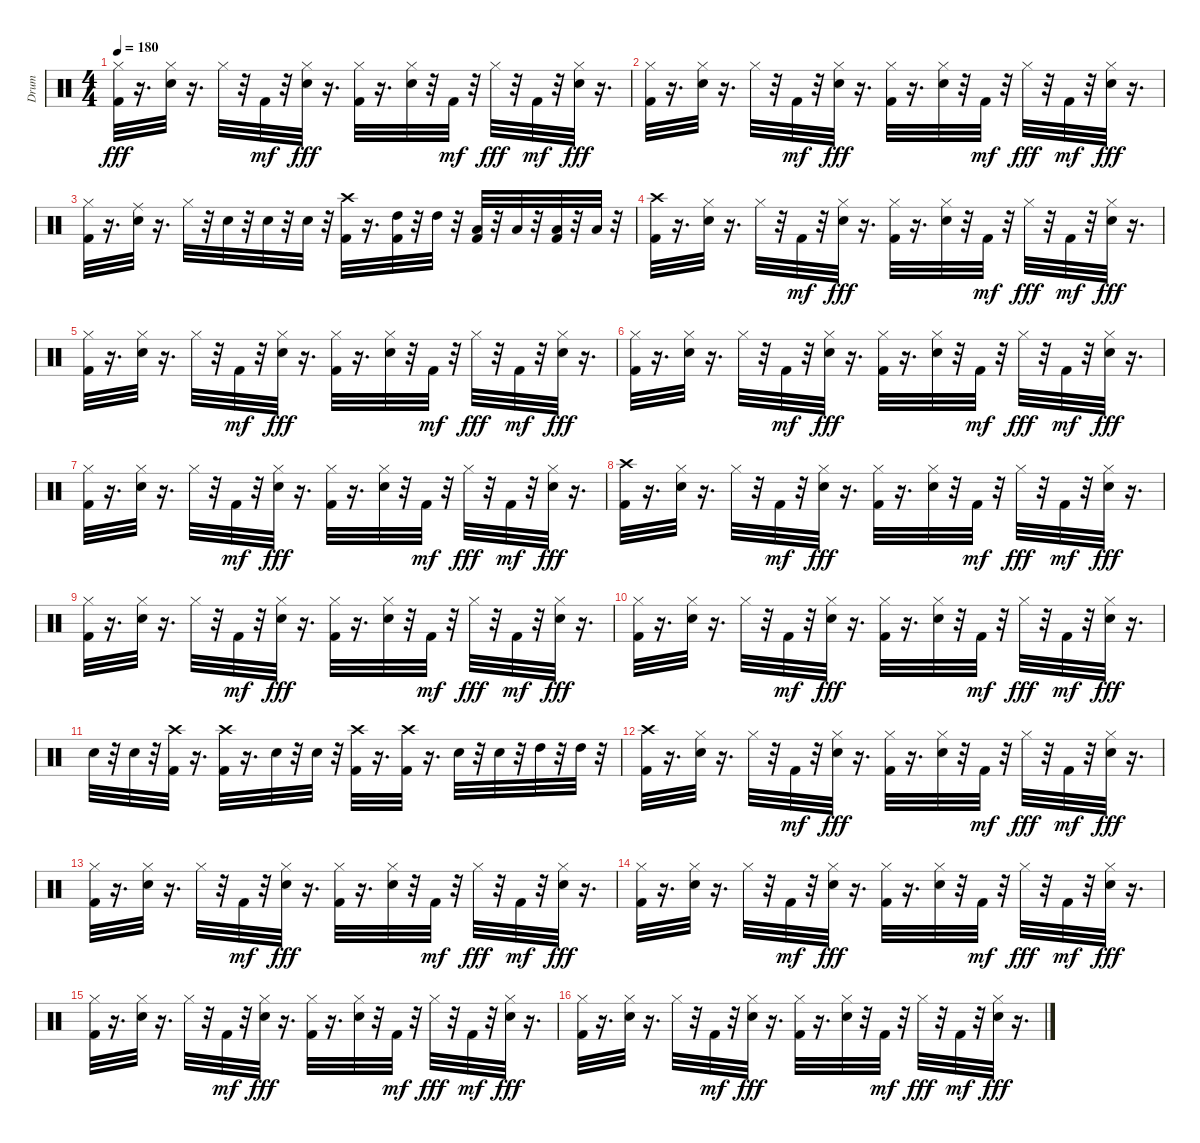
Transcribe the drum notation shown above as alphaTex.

\track ("Drum" "Drum") {instrument percussion}
\staff {score}
\articulation defaults
\ts (4 4)
\tempo 180
\clef neutral
\ks c
("Kick (hit) 2" "Hi-Hat (closed)").32{dy fff} r.16{d} ("Hi-Hat (closed)" "Snare (hit) 2").32 r.16{d} "Hi-Hat (closed)".32 r.32 "Kick (hit) 2".32{dy mf} r.32 ("Hi-Hat (closed)" "Snare (hit) 2").32{dy fff} r.16{d} ("Kick (hit) 2" "Hi-Hat (closed)").32 r.16{d} ("Hi-Hat (closed)" "Snare (hit) 2").32 r.32 "Kick (hit) 2".32{dy mf} r.32 "Hi-Hat (closed)".32{dy fff} r.32 "Kick (hit) 2".32{dy mf} r.32 ("Hi-Hat (closed)" "Snare (hit) 2").32{dy fff} r.16{d} |
("Kick (hit) 2" "Hi-Hat (closed)").32 r.16{d} ("Hi-Hat (closed)" "Snare (hit) 2").32 r.16{d} "Hi-Hat (closed)".32 r.32 "Kick (hit) 2".32{dy mf} r.32 ("Hi-Hat (closed)" "Snare (hit) 2").32{dy fff} r.16{d} ("Kick (hit) 2" "Hi-Hat (closed)").32 r.16{d} ("Hi-Hat (closed)" "Snare (hit) 2").32 r.32 "Kick (hit) 2".32{dy mf} r.32 "Hi-Hat (closed)".32{dy fff} r.32 "Kick (hit) 2".32{dy mf} r.32 ("Hi-Hat (closed)" "Snare (hit) 2").32{dy fff} r.16{d} |
("Kick (hit) 2" "Hi-Hat (closed)").32 r.16{d} ("Snare (hit) 2" "Ride (middle)").32 r.16{d} "Hi-Hat (closed)".32 r.32 "Snare (hit) 2".32 r.32 "Snare (hit) 2".32 r.32 "Snare (hit) 2".32 r.32 ("Kick (hit) 2" "Crash high (hit)").32 r.16{d} ("Kick (hit) 2" "High Tom (hit)").32 r.32 "High Tom (hit)".32 r.32 ("Kick (hit) 2" "Low Tom (hit)").32 r.32 "Low Tom (hit)".32 r.32 ("Kick (hit) 2" "Low Floor Tom (hit)").32 r.32 "Low Floor Tom (hit)".32 r.32 |
("Kick (hit) 2" "Crash high (hit)").32 r.16{d} ("Hi-Hat (closed)" "Snare (hit) 2").32 r.16{d} "Hi-Hat (closed)".32 r.32 "Kick (hit) 2".32{dy mf} r.32 ("Hi-Hat (closed)" "Snare (hit) 2").32{dy fff} r.16{d} ("Kick (hit) 2" "Hi-Hat (closed)").32 r.16{d} ("Hi-Hat (closed)" "Snare (hit) 2").32 r.32 "Kick (hit) 2".32{dy mf} r.32 "Hi-Hat (closed)".32{dy fff} r.32 "Kick (hit) 2".32{dy mf} r.32 ("Hi-Hat (closed)" "Snare (hit) 2").32{dy fff} r.16{d} |
("Kick (hit) 2" "Hi-Hat (closed)").32 r.16{d} ("Hi-Hat (closed)" "Snare (hit) 2").32 r.16{d} "Hi-Hat (closed)".32 r.32 "Kick (hit) 2".32{dy mf} r.32 ("Hi-Hat (closed)" "Snare (hit) 2").32{dy fff} r.16{d} ("Kick (hit) 2" "Hi-Hat (closed)").32 r.16{d} ("Hi-Hat (closed)" "Snare (hit) 2").32 r.32 "Kick (hit) 2".32{dy mf} r.32 "Hi-Hat (closed)".32{dy fff} r.32 "Kick (hit) 2".32{dy mf} r.32 ("Hi-Hat (closed)" "Snare (hit) 2").32{dy fff} r.16{d} |
("Kick (hit) 2" "Hi-Hat (closed)").32 r.16{d} ("Hi-Hat (closed)" "Snare (hit) 2").32 r.16{d} "Hi-Hat (closed)".32 r.32 "Kick (hit) 2".32{dy mf} r.32 ("Hi-Hat (closed)" "Snare (hit) 2").32{dy fff} r.16{d} ("Kick (hit) 2" "Hi-Hat (closed)").32 r.16{d} ("Hi-Hat (closed)" "Snare (hit) 2").32 r.32 "Kick (hit) 2".32{dy mf} r.32 "Hi-Hat (closed)".32{dy fff} r.32 "Kick (hit) 2".32{dy mf} r.32 ("Hi-Hat (closed)" "Snare (hit) 2").32{dy fff} r.16{d} |
("Kick (hit) 2" "Hi-Hat (closed)").32 r.16{d} ("Hi-Hat (closed)" "Snare (hit) 2").32 r.16{d} "Hi-Hat (closed)".32 r.32 "Kick (hit) 2".32{dy mf} r.32 ("Hi-Hat (closed)" "Snare (hit) 2").32{dy fff} r.16{d} ("Kick (hit) 2" "Hi-Hat (closed)").32 r.16{d} ("Hi-Hat (closed)" "Snare (hit) 2").32 r.32 "Kick (hit) 2".32{dy mf} r.32 "Hi-Hat (closed)".32{dy fff} r.32 "Kick (hit) 2".32{dy mf} r.32 ("Hi-Hat (closed)" "Snare (hit) 2").32{dy fff} r.16{d} |
("Kick (hit) 2" "Crash high (hit)").32 r.16{d} ("Hi-Hat (closed)" "Snare (hit) 2").32 r.16{d} "Hi-Hat (closed)".32 r.32 "Kick (hit) 2".32{dy mf} r.32 ("Hi-Hat (closed)" "Snare (hit) 2").32{dy fff} r.16{d} ("Kick (hit) 2" "Hi-Hat (closed)").32 r.16{d} ("Hi-Hat (closed)" "Snare (hit) 2").32 r.32 "Kick (hit) 2".32{dy mf} r.32 "Hi-Hat (closed)".32{dy fff} r.32 "Kick (hit) 2".32{dy mf} r.32 ("Hi-Hat (closed)" "Snare (hit) 2").32{dy fff} r.16{d} |
("Kick (hit) 2" "Hi-Hat (closed)").32 r.16{d} ("Hi-Hat (closed)" "Snare (hit) 2").32 r.16{d} "Hi-Hat (closed)".32 r.32 "Kick (hit) 2".32{dy mf} r.32 ("Hi-Hat (closed)" "Snare (hit) 2").32{dy fff} r.16{d} ("Kick (hit) 2" "Hi-Hat (closed)").32 r.16{d} ("Hi-Hat (closed)" "Snare (hit) 2").32 r.32 "Kick (hit) 2".32{dy mf} r.32 "Hi-Hat (closed)".32{dy fff} r.32 "Kick (hit) 2".32{dy mf} r.32 ("Hi-Hat (closed)" "Snare (hit) 2").32{dy fff} r.16{d} |
("Kick (hit) 2" "Hi-Hat (closed)").32 r.16{d} ("Hi-Hat (closed)" "Snare (hit) 2").32 r.16{d} "Hi-Hat (closed)".32 r.32 "Kick (hit) 2".32{dy mf} r.32 ("Hi-Hat (closed)" "Snare (hit) 2").32{dy fff} r.16{d} ("Kick (hit) 2" "Hi-Hat (closed)").32 r.16{d} ("Hi-Hat (closed)" "Snare (hit) 2").32 r.32 "Kick (hit) 2".32{dy mf} r.32 "Hi-Hat (closed)".32{dy fff} r.32 "Kick (hit) 2".32{dy mf} r.32 ("Hi-Hat (closed)" "Snare (hit) 2").32{dy fff} r.16{d} |
"Snare (hit) 2".32 r.32 "Snare (hit) 2".32 r.32 ("Kick (hit) 2" "Crash high (hit)").32 r.16{d} ("Crash high (hit)" "Kick (hit) 2").32 r.16{d} "Snare (hit) 2".32 r.32 "Snare (hit) 2".32 r.32 ("Kick (hit) 2" "Crash high (hit)").32 r.16{d} ("Kick (hit) 2" "Crash high (hit)").32 r.16{d} "Snare (hit) 2".32 r.32 "Snare (hit) 2".32 r.32 "High Tom (hit)".32 r.32 "High Tom (hit)".32 r.32 |
("Kick (hit) 2" "Crash high (hit)").32 r.16{d} ("Hi-Hat (closed)" "Snare (hit) 2").32 r.16{d} "Hi-Hat (closed)".32 r.32 "Kick (hit) 2".32{dy mf} r.32 ("Hi-Hat (closed)" "Snare (hit) 2").32{dy fff} r.16{d} ("Kick (hit) 2" "Hi-Hat (closed)").32 r.16{d} ("Hi-Hat (closed)" "Snare (hit) 2").32 r.32 "Kick (hit) 2".32{dy mf} r.32 "Hi-Hat (closed)".32{dy fff} r.32 "Kick (hit) 2".32{dy mf} r.32 ("Hi-Hat (closed)" "Snare (hit) 2").32{dy fff} r.16{d} |
("Kick (hit) 2" "Hi-Hat (closed)").32 r.16{d} ("Hi-Hat (closed)" "Snare (hit) 2").32 r.16{d} "Hi-Hat (closed)".32 r.32 "Kick (hit) 2".32{dy mf} r.32 ("Hi-Hat (closed)" "Snare (hit) 2").32{dy fff} r.16{d} ("Kick (hit) 2" "Hi-Hat (closed)").32 r.16{d} ("Hi-Hat (closed)" "Snare (hit) 2").32 r.32 "Kick (hit) 2".32{dy mf} r.32 "Hi-Hat (closed)".32{dy fff} r.32 "Kick (hit) 2".32{dy mf} r.32 ("Hi-Hat (closed)" "Snare (hit) 2").32{dy fff} r.16{d} |
("Kick (hit) 2" "Hi-Hat (closed)").32 r.16{d} ("Hi-Hat (closed)" "Snare (hit) 2").32 r.16{d} "Hi-Hat (closed)".32 r.32 "Kick (hit) 2".32{dy mf} r.32 ("Hi-Hat (closed)" "Snare (hit) 2").32{dy fff} r.16{d} ("Kick (hit) 2" "Hi-Hat (closed)").32 r.16{d} ("Hi-Hat (closed)" "Snare (hit) 2").32 r.32 "Kick (hit) 2".32{dy mf} r.32 "Hi-Hat (closed)".32{dy fff} r.32 "Kick (hit) 2".32{dy mf} r.32 ("Hi-Hat (closed)" "Snare (hit) 2").32{dy fff} r.16{d} |
("Kick (hit) 2" "Hi-Hat (closed)").32 r.16{d} ("Hi-Hat (closed)" "Snare (hit) 2").32 r.16{d} "Hi-Hat (closed)".32 r.32 "Kick (hit) 2".32{dy mf} r.32 ("Hi-Hat (closed)" "Snare (hit) 2").32{dy fff} r.16{d} ("Kick (hit) 2" "Hi-Hat (closed)").32 r.16{d} ("Hi-Hat (closed)" "Snare (hit) 2").32 r.32 "Kick (hit) 2".32{dy mf} r.32 "Hi-Hat (closed)".32{dy fff} r.32 "Kick (hit) 2".32{dy mf} r.32 ("Hi-Hat (closed)" "Snare (hit) 2").32{dy fff} r.16{d} |
("Kick (hit) 2" "Hi-Hat (closed)").32 r.16{d} ("Hi-Hat (closed)" "Snare (hit) 2").32 r.16{d} "Hi-Hat (closed)".32 r.32 "Kick (hit) 2".32{dy mf} r.32 ("Hi-Hat (closed)" "Snare (hit) 2").32{dy fff} r.16{d} ("Kick (hit) 2" "Hi-Hat (closed)").32 r.16{d} ("Hi-Hat (closed)" "Snare (hit) 2").32 r.32 "Kick (hit) 2".32{dy mf} r.32 "Hi-Hat (closed)".32{dy fff} r.32 "Kick (hit) 2".32{dy mf} r.32 ("Hi-Hat (closed)" "Snare (hit) 2").32{dy fff} r.16{d}
